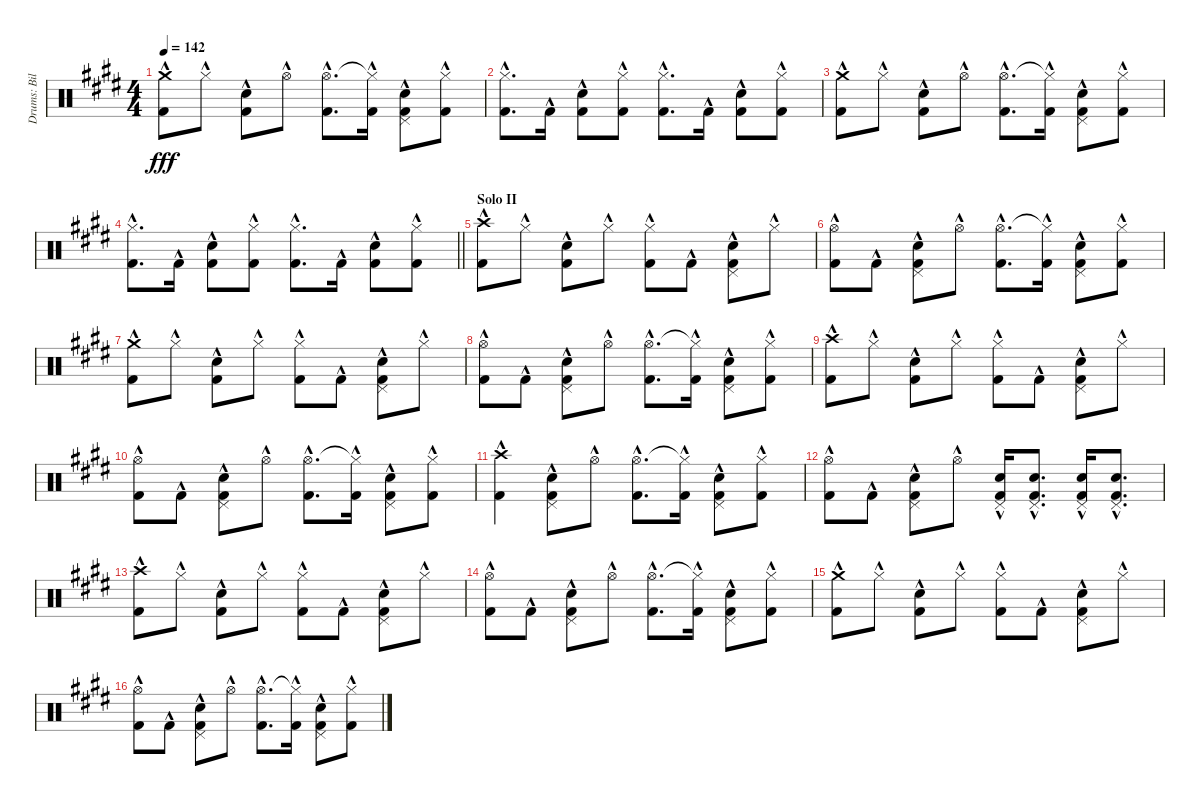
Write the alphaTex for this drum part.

\track ("Drums: Bill" "Drums: Bil") {instrument percussion}
\staff {score}
\articulation defaults
\ts (4 4)
\tempo 142
\clef neutral
\ks e
("Crash medium (hit)"{hac} "Kick (hit) 2"{hac}).8{dy fff} "Hi-Hat (closed)"{hac}.8 ("Snare (hit) 2"{hac} "Kick (hit) 2"{hac}).8 "Hi-Hat (open)"{hac}.8 ("Hi-Hat (open)"{hac} "Kick (hit) 2"{hac}).8{d} ("Hi-Hat (closed)"{t} "Kick (hit) 2"{hac}).16 ("Pedal Hi-Hat (hit)"{hac} "Snare (hit) 2"{hac} "Kick (hit) 2"{hac}).8 ("Hi-Hat (closed)"{hac} "Kick (hit) 2"{hac}).8 |
("Hi-Hat (closed)" "Kick (hit) 2"{hac}).8{d} "Kick (hit) 2"{hac}.16 ("Snare (hit) 2"{hac} "Kick (hit) 2"{hac}).8 ("Hi-Hat (closed)"{hac} "Kick (hit) 2"{hac}).8 ("Hi-Hat (closed)" "Kick (hit) 2"{hac}).8{d} "Kick (hit) 2"{hac}.16 ("Snare (hit) 2"{hac} "Kick (hit) 2"{hac}).8 ("Hi-Hat (closed)"{hac} "Kick (hit) 2"{hac}).8 |
("Crash medium (hit)"{hac} "Kick (hit) 2"{hac}).8 "Hi-Hat (closed)"{hac}.8 ("Snare (hit) 2"{hac} "Kick (hit) 2"{hac}).8 "Hi-Hat (open)"{hac}.8 ("Hi-Hat (open)"{hac} "Kick (hit) 2"{hac}).8{d} ("Hi-Hat (closed)"{t} "Kick (hit) 2"{hac}).16 ("Pedal Hi-Hat (hit)"{hac} "Snare (hit) 2"{hac} "Kick (hit) 2"{hac}).8 ("Hi-Hat (closed)"{hac} "Kick (hit) 2"{hac}).8 |
\barLineRight lightlight
("Hi-Hat (closed)" "Kick (hit) 2"{hac}).8{d} "Kick (hit) 2"{hac}.16 ("Snare (hit) 2"{hac} "Kick (hit) 2"{hac}).8 ("Hi-Hat (closed)"{hac} "Kick (hit) 2"{hac}).8 ("Hi-Hat (closed)" "Kick (hit) 2"{hac}).8{d} "Kick (hit) 2"{hac}.16 ("Snare (hit) 2"{hac} "Kick (hit) 2"{hac}).8 ("Hi-Hat (closed)"{hac} "Kick (hit) 2"{hac}).8 |
\section ("" "Solo II")
("Crash high (hit)"{hac} "Kick (hit) 2"{hac}).8 "Hi-Hat (closed)"{hac}.8 ("Snare (hit) 2"{hac} "Kick (hit) 2"{hac}).8 "Hi-Hat (closed)"{hac}.8 ("Hi-Hat (closed)"{hac} "Kick (hit) 2"{hac}).8 "Kick (hit) 2"{hac}.8 ("Pedal Hi-Hat (hit)"{hac} "Snare (hit) 2"{hac} "Kick (hit) 2"{hac}).8 "Hi-Hat (closed)"{hac}.8 |
("Hi-Hat (open)"{hac} "Kick (hit) 2"{hac}).8 "Kick (hit) 2"{hac}.8 ("Pedal Hi-Hat (hit)"{hac} "Snare (hit) 2"{hac} "Kick (hit) 2"{hac}).8 "Hi-Hat (open)"{hac}.8 ("Hi-Hat (open)"{hac} "Kick (hit) 2"{hac}).8{d} ("Hi-Hat (closed)"{t} "Kick (hit) 2"{hac}).16 ("Pedal Hi-Hat (hit)"{hac} "Snare (hit) 2"{hac} "Kick (hit) 2"{hac}).8 ("Hi-Hat (closed)"{hac} "Kick (hit) 2"{hac}).8 |
("Crash medium (hit)"{hac} "Kick (hit) 2"{hac}).8 "Hi-Hat (closed)"{hac}.8 ("Snare (hit) 2"{hac} "Kick (hit) 2"{hac}).8 "Hi-Hat (closed)"{hac}.8 ("Hi-Hat (closed)"{hac} "Kick (hit) 2"{hac}).8 "Kick (hit) 2"{hac}.8 ("Pedal Hi-Hat (hit)"{hac} "Snare (hit) 2"{hac} "Kick (hit) 2"{hac}).8 "Hi-Hat (closed)"{hac}.8 |
("Hi-Hat (open)"{hac} "Kick (hit) 2"{hac}).8 "Kick (hit) 2"{hac}.8 ("Pedal Hi-Hat (hit)"{hac} "Snare (hit) 2"{hac} "Kick (hit) 2"{hac}).8 "Hi-Hat (open)"{hac}.8 ("Hi-Hat (open)"{hac} "Kick (hit) 2"{hac}).8{d} ("Hi-Hat (closed)"{t} "Kick (hit) 2"{hac}).16 ("Pedal Hi-Hat (hit)"{hac} "Snare (hit) 2"{hac} "Kick (hit) 2"{hac}).8 ("Hi-Hat (closed)"{hac} "Kick (hit) 2"{hac}).8 |
("Crash high (hit)"{hac} "Kick (hit) 2"{hac}).8 "Hi-Hat (closed)"{hac}.8 ("Snare (hit) 2"{hac} "Kick (hit) 2"{hac}).8 "Hi-Hat (closed)"{hac}.8 ("Hi-Hat (closed)"{hac} "Kick (hit) 2"{hac}).8 "Kick (hit) 2"{hac}.8 ("Pedal Hi-Hat (hit)"{hac} "Snare (hit) 2"{hac} "Kick (hit) 2"{hac}).8 "Hi-Hat (closed)"{hac}.8 |
("Hi-Hat (open)"{hac} "Kick (hit) 2"{hac}).8 "Kick (hit) 2"{hac}.8 ("Pedal Hi-Hat (hit)"{hac} "Snare (hit) 2"{hac} "Kick (hit) 2"{hac}).8 "Hi-Hat (open)"{hac}.8 ("Hi-Hat (open)"{hac} "Kick (hit) 2"{hac}).8{d} ("Hi-Hat (closed)"{t} "Kick (hit) 2"{hac}).16 ("Pedal Hi-Hat (hit)"{hac} "Snare (hit) 2"{hac} "Kick (hit) 2"{hac}).8 ("Hi-Hat (closed)"{hac} "Kick (hit) 2"{hac}).8 |
("Crash high (hit)"{hac} "Kick (hit) 2"{hac}).4 ("Pedal Hi-Hat (hit)"{hac} "Snare (hit) 2"{hac} "Kick (hit) 2"{hac}).8 "Hi-Hat (open)"{hac}.8 ("Hi-Hat (open)"{hac} "Kick (hit) 2"{hac}).8{d} ("Hi-Hat (closed)"{t} "Kick (hit) 2"{hac}).16 ("Pedal Hi-Hat (hit)"{hac} "Snare (hit) 2"{hac} "Kick (hit) 2"{hac}).8 ("Hi-Hat (closed)"{hac} "Kick (hit) 2"{hac}).8 |
("Hi-Hat (open)"{hac} "Kick (hit) 2"{hac}).8 "Kick (hit) 2"{hac}.8 ("Pedal Hi-Hat (hit)"{hac} "Snare (hit) 2"{hac} "Kick (hit) 2"{hac}).8 "Hi-Hat (open)"{hac}.8 ("Pedal Hi-Hat (hit)"{hac} "Snare (hit) 2"{hac} "Kick (hit) 2"{hac}).16 ("Pedal Hi-Hat (hit)"{hac} "Snare (hit) 2"{hac} "Kick (hit) 2"{hac}).8{d} ("Pedal Hi-Hat (hit)"{hac} "Snare (hit) 2"{hac} "Kick (hit) 2"{hac}).16 ("Pedal Hi-Hat (hit)"{hac} "Snare (hit) 2"{hac} "Kick (hit) 2"{hac}).8{d} |
("Crash high (hit)"{hac} "Kick (hit) 2"{hac}).8 "Hi-Hat (closed)"{hac}.8 ("Snare (hit) 2"{hac} "Kick (hit) 2"{hac}).8 "Hi-Hat (closed)"{hac}.8 ("Hi-Hat (closed)"{hac} "Kick (hit) 2"{hac}).8 "Kick (hit) 2"{hac}.8 ("Pedal Hi-Hat (hit)"{hac} "Snare (hit) 2"{hac} "Kick (hit) 2"{hac}).8 "Hi-Hat (closed)"{hac}.8 |
("Hi-Hat (open)"{hac} "Kick (hit) 2"{hac}).8 "Kick (hit) 2"{hac}.8 ("Pedal Hi-Hat (hit)"{hac} "Snare (hit) 2"{hac} "Kick (hit) 2"{hac}).8 "Hi-Hat (open)"{hac}.8 ("Hi-Hat (open)"{hac} "Kick (hit) 2"{hac}).8{d} ("Hi-Hat (closed)"{t} "Kick (hit) 2"{hac}).16 ("Pedal Hi-Hat (hit)"{hac} "Snare (hit) 2"{hac} "Kick (hit) 2"{hac}).8 ("Hi-Hat (closed)"{hac} "Kick (hit) 2"{hac}).8 |
("Crash medium (hit)"{hac} "Kick (hit) 2"{hac}).8 "Hi-Hat (closed)"{hac}.8 ("Snare (hit) 2"{hac} "Kick (hit) 2"{hac}).8 "Hi-Hat (closed)"{hac}.8 ("Hi-Hat (closed)"{hac} "Kick (hit) 2"{hac}).8 "Kick (hit) 2"{hac}.8 ("Pedal Hi-Hat (hit)"{hac} "Snare (hit) 2"{hac} "Kick (hit) 2"{hac}).8 "Hi-Hat (closed)"{hac}.8 |
("Hi-Hat (open)"{hac} "Kick (hit) 2"{hac}).8 "Kick (hit) 2"{hac}.8 ("Pedal Hi-Hat (hit)"{hac} "Snare (hit) 2"{hac} "Kick (hit) 2"{hac}).8 "Hi-Hat (open)"{hac}.8 ("Hi-Hat (open)"{hac} "Kick (hit) 2"{hac}).8{d} ("Hi-Hat (closed)"{t} "Kick (hit) 2"{hac}).16 ("Pedal Hi-Hat (hit)"{hac} "Snare (hit) 2"{hac} "Kick (hit) 2"{hac}).8 ("Hi-Hat (closed)"{hac} "Kick (hit) 2"{hac}).8
